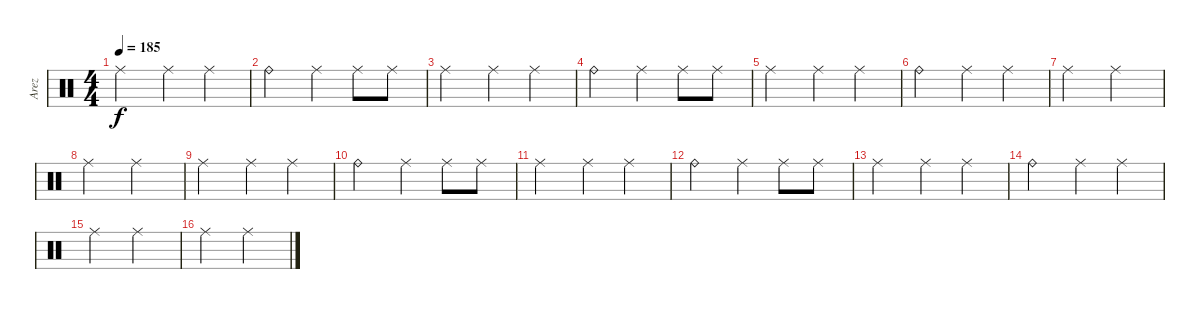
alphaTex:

\track ("Arez" "Arez") {instrument percussion}
\staff {score}
\articulation defaults
\ts (4 4)
\tempo 185
\clef neutral
\ks c "Ride (middle)".2{dy f} "Ride (middle)".4 "Ride (middle)".4
|
"Ride (bell)".2 "Ride (middle)".4 "Ride (middle)".8 "Ride (middle)".8 |
"Ride (middle)".2 "Ride (middle)".4 "Ride (middle)".4 |
"Ride (bell)".2 "Ride (middle)".4 "Ride (middle)".8 "Ride (middle)".8 |
"Ride (middle)".2 "Ride (middle)".4 "Ride (middle)".4 |
"Ride (bell)".2 "Ride (middle)".4 "Ride (middle)".4 |
"Ride (middle)".2 "Ride (middle)".2 |
"Ride (middle)".2 "Ride (middle)".2 |
"Ride (middle)".2 "Ride (middle)".4 "Ride (middle)".4 |
"Ride (bell)".2 "Ride (middle)".4 "Ride (middle)".8 "Ride (middle)".8 |
"Ride (middle)".2 "Ride (middle)".4 "Ride (middle)".4 |
"Ride (bell)".2 "Ride (middle)".4 "Ride (middle)".8 "Ride (middle)".8 |
"Ride (middle)".2 "Ride (middle)".4 "Ride (middle)".4 |
"Ride (bell)".2 "Ride (middle)".4 "Ride (middle)".4 |
"Ride (middle)".2 "Ride (middle)".2 |
"Ride (middle)".2 "Ride (middle)".2
